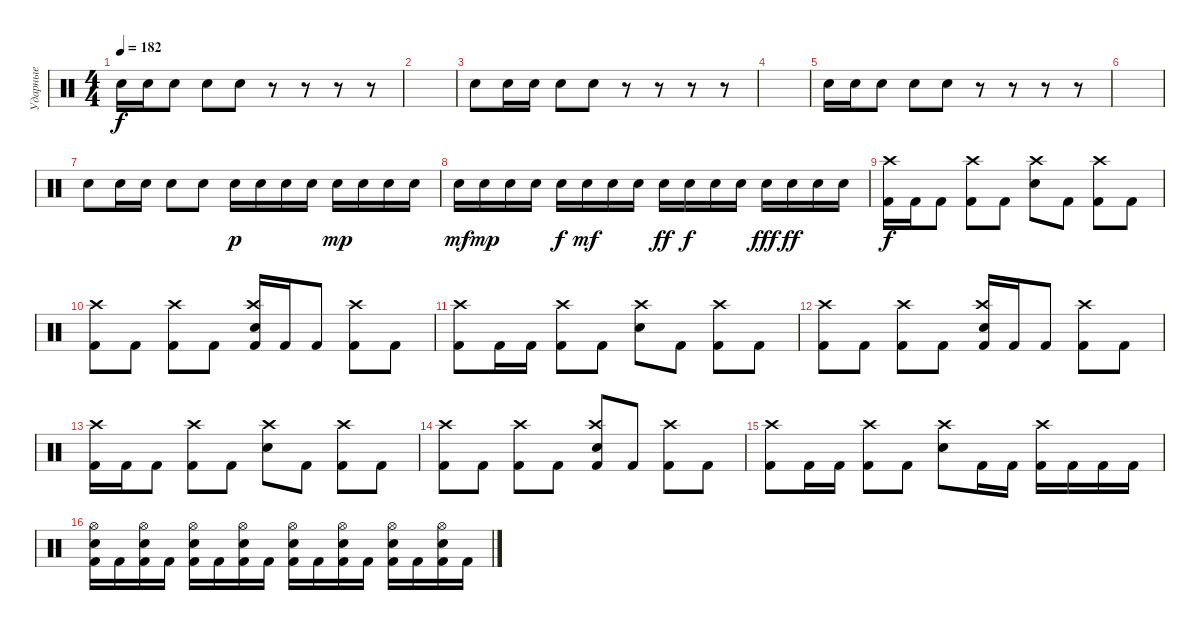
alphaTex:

\track ("Ударные" "Ударные") {instrument percussion}
\staff {score}
\articulation defaults
\ts (4 4)
\tempo 182
\clef neutral
\ks c "Electric Snare (hit)".16{dy f} "Electric Snare (hit)".16 "Electric Snare (hit)".8 "Electric Snare (hit)".8 "Electric Snare (hit)".8
r.8 r.8 r.8 r.8 |
|
"Electric Snare (hit)".8 "Electric Snare (hit)".16 "Electric Snare (hit)".16 "Electric Snare (hit)".8 "Electric Snare (hit)".8 r.8 r.8 r.8 r.8 |
|
"Electric Snare (hit)".16 "Electric Snare (hit)".16 "Electric Snare (hit)".8 "Electric Snare (hit)".8 "Electric Snare (hit)".8 r.8 r.8 r.8 r.8 |
|
"Electric Snare (hit)".8 "Electric Snare (hit)".16 "Electric Snare (hit)".16 "Electric Snare (hit)".8 "Electric Snare (hit)".8 "Electric Snare (hit)".16{dy p} "Electric Snare (hit)".16 "Electric Snare (hit)".16 "Electric Snare (hit)".16 "Electric Snare (hit)".16{dy mp} "Electric Snare (hit)".16 "Electric Snare (hit)".16 "Electric Snare (hit)".16 |
"Electric Snare (hit)".16{dy mf} "Electric Snare (hit)".16{dy mp} "Electric Snare (hit)".16 "Electric Snare (hit)".16 "Electric Snare (hit)".16{dy f} "Electric Snare (hit)".16{dy mf} "Electric Snare (hit)".16 "Electric Snare (hit)".16 "Electric Snare (hit)".16{dy ff} "Electric Snare (hit)".16{dy f} "Electric Snare (hit)".16 "Electric Snare (hit)".16 "Electric Snare (hit)".16{dy fff} "Electric Snare (hit)".16{dy ff} "Electric Snare (hit)".16 "Electric Snare (hit)".16 |
("Crash high (hit)" "Kick (hit) 2").16{dy f} "Kick (hit) 2".16 "Kick (hit) 2".8 ("Crash high (hit)" "Kick (hit) 2").8 "Kick (hit) 2".8 ("Crash high (hit)" "Electric Snare (hit)").8 "Kick (hit) 2".8 ("Crash high (hit)" "Kick (hit) 2").8 "Kick (hit) 2".8 |
("Crash high (hit)" "Kick (hit) 2").8 "Kick (hit) 2".8 ("Crash high (hit)" "Kick (hit) 2").8 "Kick (hit) 2".8 ("Crash high (hit)" "Electric Snare (hit)" "Kick (hit) 2").16 "Kick (hit) 2".16 "Kick (hit) 2".8 ("Crash high (hit)" "Kick (hit) 2").8 "Kick (hit) 2".8 |
("Crash high (hit)" "Kick (hit) 2").8 "Kick (hit) 2".16 "Kick (hit) 2".16 ("Crash high (hit)" "Kick (hit) 2").8 "Kick (hit) 2".8 ("Crash high (hit)" "Electric Snare (hit)").8 "Kick (hit) 2".8 ("Crash high (hit)" "Kick (hit) 2").8 "Kick (hit) 2".8 |
("Crash high (hit)" "Kick (hit) 2").8 "Kick (hit) 2".8 ("Crash high (hit)" "Kick (hit) 2").8 "Kick (hit) 2".8 ("Crash high (hit)" "Electric Snare (hit)" "Kick (hit) 2").16 "Kick (hit) 2".16 "Kick (hit) 2".8 ("Crash high (hit)" "Kick (hit) 2").8 "Kick (hit) 2".8 |
("Crash high (hit)" "Kick (hit) 2").16 "Kick (hit) 2".16 "Kick (hit) 2".8 ("Crash high (hit)" "Kick (hit) 2").8 "Kick (hit) 2".8 ("Crash high (hit)" "Electric Snare (hit)").8 "Kick (hit) 2".8 ("Crash high (hit)" "Kick (hit) 2").8 "Kick (hit) 2".8 |
("Crash high (hit)" "Kick (hit) 2").8 "Kick (hit) 2".8 ("Crash high (hit)" "Kick (hit) 2").8 "Kick (hit) 2".8 ("Crash high (hit)" "Electric Snare (hit)" "Kick (hit) 2").8 "Kick (hit) 2".8 ("Crash high (hit)" "Kick (hit) 2").8 "Kick (hit) 2".8 |
("Crash high (hit)" "Kick (hit) 2").8 "Kick (hit) 2".16 "Kick (hit) 2".16 ("Crash high (hit)" "Kick (hit) 2").8 "Kick (hit) 2".8 ("Crash high (hit)" "Electric Snare (hit)").8 "Kick (hit) 2".16 "Kick (hit) 2".16 ("Crash high (hit)" "Kick (hit) 2").16 "Kick (hit) 2".16 "Kick (hit) 2".16 "Kick (hit) 2".16 |
("Hi-Hat (open)" "Electric Snare (hit)" "Kick (hit) 2").16 "Kick (hit) 2".16 ("Hi-Hat (open)" "Electric Snare (hit)" "Kick (hit) 2").16 "Kick (hit) 2".16 ("Hi-Hat (open)" "Electric Snare (hit)" "Kick (hit) 2").16 "Kick (hit) 2".16 ("Hi-Hat (open)" "Electric Snare (hit)" "Kick (hit) 2").16 "Kick (hit) 2".16 ("Hi-Hat (open)" "Electric Snare (hit)" "Kick (hit) 2").16 "Kick (hit) 2".16 ("Hi-Hat (open)" "Electric Snare (hit)" "Kick (hit) 2").16 "Kick (hit) 2".16 ("Hi-Hat (open)" "Electric Snare (hit)" "Kick (hit) 2").16 "Kick (hit) 2".16 ("Hi-Hat (open)" "Electric Snare (hit)" "Kick (hit) 2").16 "Kick (hit) 2".16
